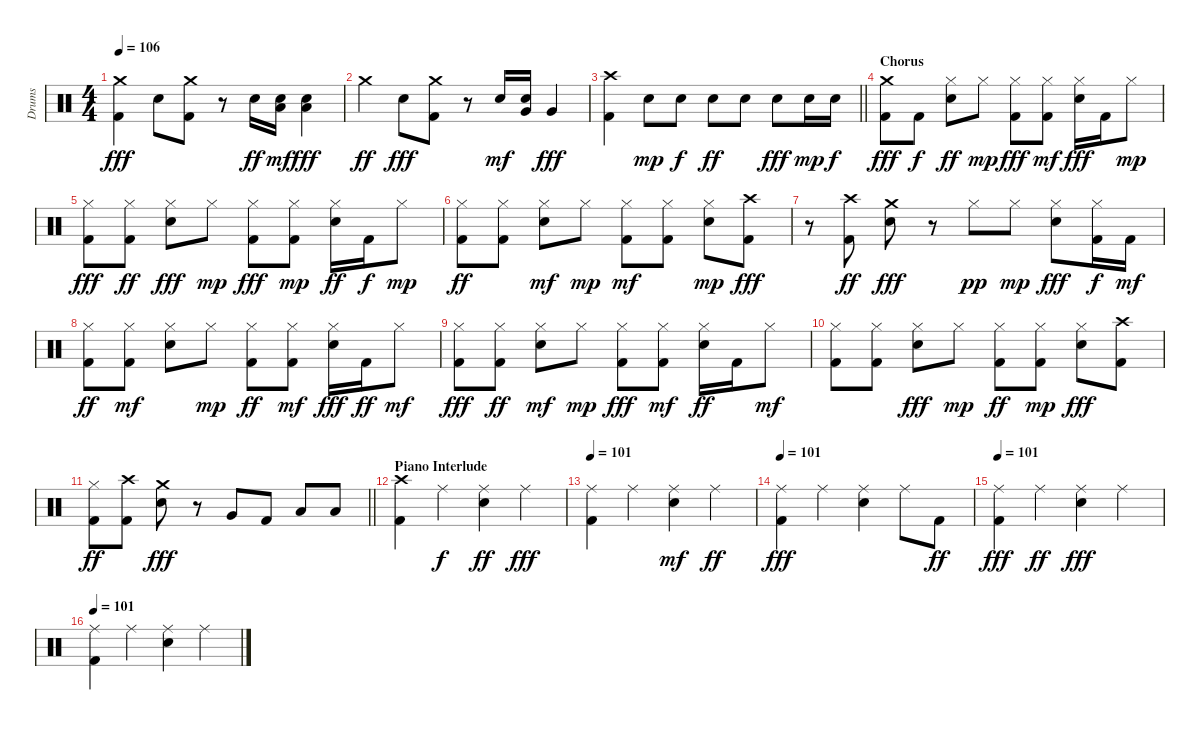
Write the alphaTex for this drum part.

\track ("Drums" "Drums") {instrument percussion}
\staff {score}
\articulation defaults
\ts (4 4)
\tempo 106
\clef neutral
\ks c
("Crash medium (hit)" "Kick (hit) 2").4{dy fff} "Snare (hit) 2".8 ("Crash medium (hit)" "Kick (hit) 2").8 r.8 "Snare (hit) 2".16{dy ff} ("Snare (hit) 2" "Low Floor Tom (hit)").16{dy mf} ("Snare (hit) 2" "Low Floor Tom (hit)").4{dy fff} |
"Crash medium (hit)".4{dy ff} "Snare (hit) 2".8{dy fff} ("Crash medium (hit)" "Kick (hit) 2").8 r.8 "Snare (hit) 2".16{dy mf} ("Snare (hit) 2" "Very Low Tom (hit)").16 "Very Low Tom (hit)".4{dy fff} |
\barLineRight lightlight
("Crash high (hit)" "Kick (hit) 2").4 "Snare (hit) 2".8{dy mp} "Snare (hit) 2".8{dy f} "Snare (hit) 2".8{dy ff} "Snare (hit) 2".8 "Snare (hit) 2".8{dy fff} "Snare (hit) 2".16{dy mp} "Snare (hit) 2".16{dy f} |
\section ("" "Chorus")
("Crash medium (hit)" "Kick (hit) 2").8{dy fff} "Kick (hit) 2".8{dy f} ("Hi-Hat (closed)" "Snare (hit) 2").8{dy ff} "Hi-Hat (closed)".8{dy mp} ("Hi-Hat (closed)" "Kick (hit) 2").8{dy fff} ("Hi-Hat (closed)" "Kick (hit) 2").8{dy mf} ("Hi-Hat (closed)" "Snare (hit) 2").16{dy fff} "Kick (hit) 2".16 "Hi-Hat (closed)".8{dy mp} |
("Hi-Hat (closed)" "Kick (hit) 2").8{dy fff} ("Hi-Hat (closed)" "Kick (hit) 2").8{dy ff} ("Hi-Hat (closed)" "Snare (hit) 2").8{dy fff} "Hi-Hat (closed)".8{dy mp} ("Hi-Hat (closed)" "Kick (hit) 2").8{dy fff} ("Kick (hit) 2" "Hi-Hat (closed)").8{dy mp} ("Hi-Hat (closed)" "Snare (hit) 2").16{dy ff} "Kick (hit) 2".16{dy f} "Hi-Hat (closed)".8{dy mp} |
("Hi-Hat (closed)" "Kick (hit) 2").8{dy ff} ("Hi-Hat (closed)" "Kick (hit) 2").8 ("Snare (hit) 2" "Hi-Hat (closed)").8{dy mf} "Hi-Hat (closed)".8{dy mp} ("Kick (hit) 2" "Hi-Hat (closed)").8{dy mf} ("Kick (hit) 2" "Hi-Hat (closed)").8 ("Snare (hit) 2" "Hi-Hat (closed)").8{dy mp} ("Crash high (hit)" "Kick (hit) 2").8{dy fff} |
r.8 ("Crash high (hit)" "Kick (hit) 2").8{dy ff} ("Crash medium (hit)" "Snare (hit) 2").8{dy fff} r.8 "Hi-Hat (closed)".8{dy pp} "Hi-Hat (closed)".8{dy mp} ("Hi-Hat (closed)" "Snare (hit) 2").8{dy fff} ("Kick (hit) 2" "Hi-Hat (closed)").16{dy f} "Kick (hit) 2".16{dy mf} |
("Kick (hit) 2" "Hi-Hat (closed)").8{dy ff} ("Kick (hit) 2" "Hi-Hat (closed)").8{dy mf} ("Snare (hit) 2" "Hi-Hat (closed)").8 "Hi-Hat (closed)".8{dy mp} ("Hi-Hat (closed)" "Kick (hit) 2").8{dy ff} ("Hi-Hat (closed)" "Kick (hit) 2").8{dy mf} ("Snare (hit) 2" "Hi-Hat (closed)").16{dy fff} "Kick (hit) 2".16{dy ff} "Hi-Hat (closed)".8{dy mf} |
("Hi-Hat (closed)" "Kick (hit) 2").8{dy fff} ("Hi-Hat (closed)" "Kick (hit) 2").8{dy ff} ("Snare (hit) 2" "Hi-Hat (closed)").8{dy mf} "Hi-Hat (closed)".8{dy mp} ("Kick (hit) 2" "Hi-Hat (closed)").8{dy fff} ("Kick (hit) 2" "Hi-Hat (closed)").8{dy mf} ("Snare (hit) 2" "Hi-Hat (closed)").16{dy ff} "Kick (hit) 2".16 "Hi-Hat (closed)".8{dy mf} |
("Kick (hit) 2" "Hi-Hat (closed)").8 ("Kick (hit) 2" "Hi-Hat (closed)").8 ("Snare (hit) 2" "Hi-Hat (closed)").8{dy fff} "Hi-Hat (closed)".8{dy mp} ("Kick (hit) 2" "Hi-Hat (closed)").8{dy ff} ("Hi-Hat (closed)" "Kick (hit) 2").8{dy mp} ("Snare (hit) 2" "Hi-Hat (closed)").8{dy fff} ("Crash high (hit)" "Kick (hit) 2").8 |
\barLineRight lightlight
("Kick (hit) 2" "Hi-Hat (closed)").8{dy ff} ("Crash high (hit)" "Kick (hit) 2").8 ("Snare (hit) 2" "Crash medium (hit)").8{dy fff} r.8 "Very Low Tom (hit)".8 "Kick (hit) 2".8 "Low Tom (hit)".8 "Low Floor Tom (hit)".8 |
\section ("" "Piano Interlude")
("Kick (hit) 2" "Crash high (hit)").4 "Ride (middle)".4{dy f} ("Snare (hit) 2" "Ride (middle)").4{dy ff} "Ride (middle)".4{dy fff} |
\tempo 101
("Ride (middle)" "Kick (hit) 2").4 "Ride (middle)".4 ("Snare (hit) 2" "Ride (middle)").4{dy mf} "Ride (middle)".4{dy ff} |
\tempo 101
("Ride (middle)" "Kick (hit) 2").4{dy fff} "Ride (middle)".4 ("Snare (hit) 2" "Ride (middle)").4 "Ride (middle)".8 "Kick (hit) 2".8{dy ff} |
\tempo 101
("Ride (middle)" "Kick (hit) 2").4{dy fff} "Ride (middle)".4{dy ff} ("Ride (middle)" "Snare (hit) 2").4{dy fff} "Ride (middle)".4 |
\tempo 101
("Ride (middle)" "Kick (hit) 2").4 "Ride (middle)".4 ("Snare (hit) 2" "Ride (middle)").4 "Ride (middle)".4
